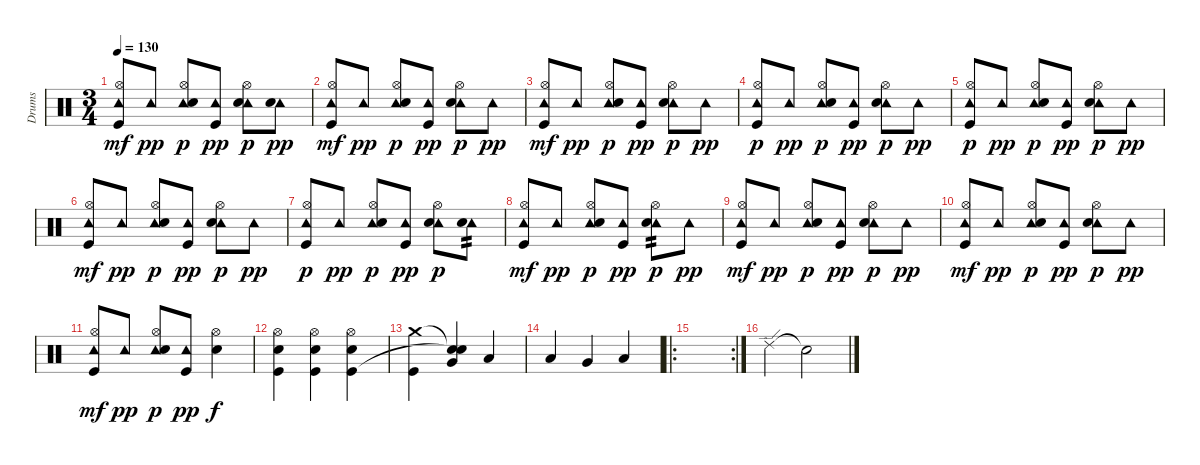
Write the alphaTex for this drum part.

\track ("Drums" "Drums") {instrument percussion}
\staff {score}
\articulation defaults
\ts (3 4)
\tempo 130
\clef neutral
\ks c
("Tambourine (hit)" "Hi-Hat (open)" "Kick (hit)").8{dy mf} "Tambourine (hit)".8{dy pp} ("Tambourine (hit)" "Hi-Hat (open)" "Snare (hit) 2").8{dy p} ("Tambourine (hit)" "Kick (hit)").8{dy pp} ("Tambourine (hit)" "Hi-Hat (open)" "Snare (hit) 2").8{dy p} ("Tambourine (hit)" "Snare (hit) 2").8{dy pp} |
("Tambourine (hit)" "Hi-Hat (open)" "Kick (hit)").8{dy mf} "Tambourine (hit)".8{dy pp} ("Tambourine (hit)" "Hi-Hat (open)" "Snare (hit) 2").8{dy p} ("Tambourine (hit)" "Kick (hit)").8{dy pp} ("Tambourine (hit)" "Hi-Hat (open)" "Snare (hit) 2").8{dy p} "Tambourine (hit)".8{dy pp} |
("Tambourine (hit)" "Hi-Hat (open)" "Kick (hit)").8{dy mf} "Tambourine (hit)".8{dy pp} ("Tambourine (hit)" "Hi-Hat (open)" "Snare (hit) 2").8{dy p} ("Tambourine (hit)" "Kick (hit)").8{dy pp} ("Tambourine (hit)" "Hi-Hat (open)" "Snare (hit) 2").8{dy p} "Tambourine (hit)".8{dy pp} |
("Tambourine (hit)" "Hi-Hat (open)" "Kick (hit)").8{dy p} "Tambourine (hit)".8{dy pp} ("Tambourine (hit)" "Hi-Hat (open)" "Snare (hit) 2").8{dy p} ("Tambourine (hit)" "Kick (hit)").8{dy pp} ("Tambourine (hit)" "Hi-Hat (open)" "Snare (hit) 2").8{dy p} "Tambourine (hit)".8{dy pp} |
("Tambourine (hit)" "Hi-Hat (open)" "Kick (hit)").8{dy p} "Tambourine (hit)".8{dy pp} ("Tambourine (hit)" "Hi-Hat (open)" "Snare (hit) 2").8{dy p} ("Tambourine (hit)" "Kick (hit)").8{dy pp} ("Tambourine (hit)" "Hi-Hat (open)" "Snare (hit) 2").8{dy p} "Tambourine (hit)".8{dy pp} |
("Tambourine (hit)" "Hi-Hat (open)" "Kick (hit)").8{dy mf} "Tambourine (hit)".8{dy pp} ("Tambourine (hit)" "Hi-Hat (open)" "Snare (hit) 2").8{dy p} ("Tambourine (hit)" "Kick (hit)").8{dy pp} ("Tambourine (hit)" "Hi-Hat (open)" "Snare (hit) 2").8{dy p} "Tambourine (hit)".8{dy pp} |
("Tambourine (hit)" "Hi-Hat (open)" "Kick (hit)").8{dy p} "Tambourine (hit)".8{dy pp} ("Tambourine (hit)" "Hi-Hat (open)" "Snare (hit) 2").8{dy p} ("Tambourine (hit)" "Kick (hit)").8{dy pp} ("Tambourine (hit)" "Hi-Hat (open)" "Snare (hit) 2").8{dy p} ("Tambourine (hit)" "Snare (hit) 2").8{tp 2} |
("Tambourine (hit)" "Hi-Hat (open)" "Kick (hit)").8{dy mf} "Tambourine (hit)".8{dy pp} ("Tambourine (hit)" "Hi-Hat (open)" "Snare (hit) 2").8{dy p} ("Tambourine (hit)" "Kick (hit)").8{dy pp} ("Tambourine (hit)" "Hi-Hat (open)" "Snare (hit) 2").8{tp 2 dy p} "Tambourine (hit)".8{dy pp} |
("Tambourine (hit)" "Hi-Hat (open)" "Kick (hit)").8{dy mf} "Tambourine (hit)".8{dy pp} ("Tambourine (hit)" "Hi-Hat (open)" "Snare (hit) 2").8{dy p} ("Tambourine (hit)" "Kick (hit)").8{dy pp} ("Tambourine (hit)" "Hi-Hat (open)" "Snare (hit) 2").8{dy p} "Tambourine (hit)".8{dy pp} |
("Tambourine (hit)" "Hi-Hat (open)" "Kick (hit)").8{dy mf} "Tambourine (hit)".8{dy pp} ("Tambourine (hit)" "Hi-Hat (open)" "Snare (hit) 2").8{dy p} ("Tambourine (hit)" "Kick (hit)").8{dy pp} ("Tambourine (hit)" "Hi-Hat (open)" "Snare (hit) 2").8{dy p} "Tambourine (hit)".8{dy pp} |
("Tambourine (hit)" "Hi-Hat (open)" "Kick (hit)").8{dy mf} "Tambourine (hit)".8{dy pp} ("Tambourine (hit)" "Hi-Hat (open)" "Snare (hit) 2").8{dy p} ("Tambourine (hit)" "Kick (hit)").8{dy pp} ("Hi-Hat (open)" "Snare (hit) 2").4{dy f} |
("Hi-Hat (open)" "Snare (hit) 2" "Kick (hit)").4 ("Hi-Hat (open)" "Snare (hit) 2" "Kick (hit)").4 ("Hi-Hat (open)" "Snare (hit) 2" "Kick (hit)").4 |
("Crash medium (hit)" "Kick (hit)").4 ("Snare (hit)"{t} "Very Low Tom (hit)" "Snare (hit)"{t}).4 "Low Floor Tom (hit)".4 |
"Low Tom (hit)".4 "Very Low Tom (hit)".4 "Low Floor Tom (hit)".4 |
\ro
\rc 2
|
"Ride (edge) 2".4 "Snare (hit)"{t}.2
